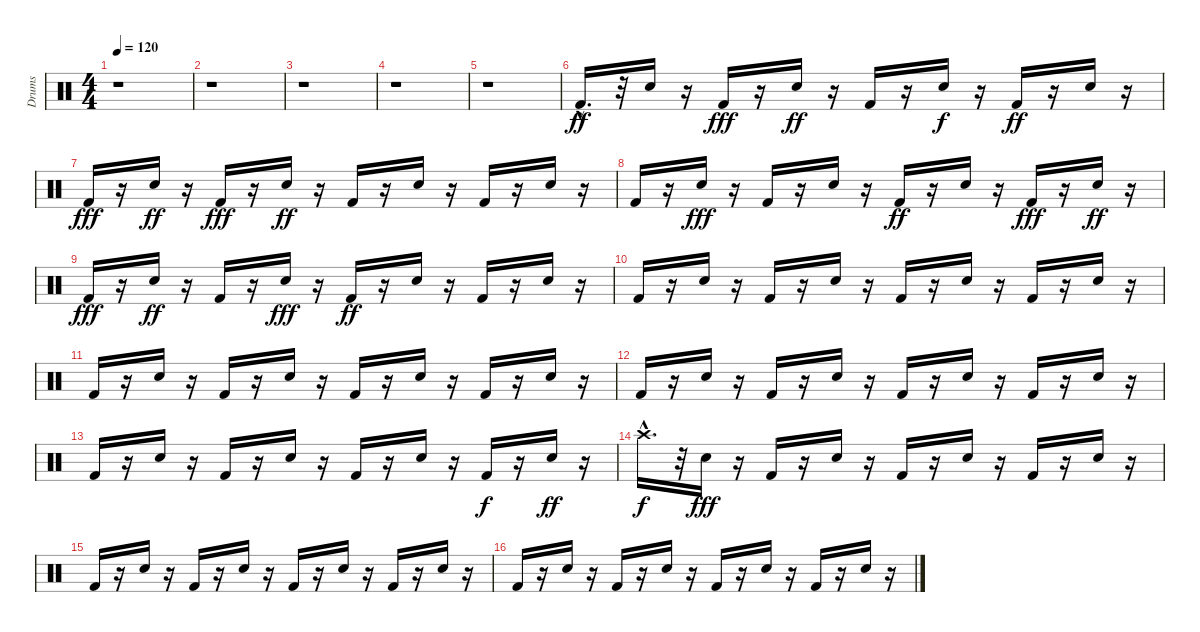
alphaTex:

\track ("Drums" "Drums") {instrument percussion}
\staff {score}
\articulation defaults
\ts (4 4)
\tempo 120
\clef neutral
\ks c
r.1{dy ff} |
r.1 |
r.1 |
r.1 |
r.1 |
"Kick (hit) 2"{hac}.16{d} r.32 "Snare (hit) 2".16 r.16 "Kick (hit) 2".16{dy fff} r.16 "Snare (hit) 2".16{dy ff} r.16 "Kick (hit) 2".16 r.16 "Snare (hit) 2".16{dy f} r.16 "Kick (hit) 2".16{dy ff} r.16 "Snare (hit) 2".16 r.16 |
"Kick (hit) 2".16{dy fff} r.16 "Snare (hit) 2".16{dy ff} r.16 "Kick (hit) 2".16{dy fff} r.16 "Snare (hit) 2".16{dy ff} r.16 "Kick (hit) 2".16 r.16 "Snare (hit) 2".16 r.16 "Kick (hit) 2".16 r.16 "Snare (hit) 2".16 r.16 |
"Kick (hit) 2".16 r.16 "Snare (hit) 2".16{dy fff} r.16 "Kick (hit) 2".16 r.16 "Snare (hit) 2".16 r.16 "Kick (hit) 2".16{dy ff} r.16 "Snare (hit) 2".16 r.16 "Kick (hit) 2".16{dy fff} r.16 "Snare (hit) 2".16{dy ff} r.16 |
"Kick (hit) 2".16{dy fff} r.16 "Snare (hit) 2".16{dy ff} r.16 "Kick (hit) 2".16 r.16 "Snare (hit) 2".16{dy fff} r.16 "Kick (hit) 2".16{dy ff} r.16 "Snare (hit) 2".16 r.16 "Kick (hit) 2".16 r.16 "Snare (hit) 2".16 r.16 |
"Kick (hit) 2".16 r.16 "Snare (hit) 2".16 r.16 "Kick (hit) 2".16 r.16 "Snare (hit) 2".16 r.16 "Kick (hit) 2".16 r.16 "Snare (hit) 2".16 r.16 "Kick (hit) 2".16 r.16 "Snare (hit) 2".16 r.16 |
"Kick (hit) 2".16 r.16 "Snare (hit) 2".16 r.16 "Kick (hit) 2".16 r.16 "Snare (hit) 2".16 r.16 "Kick (hit) 2".16 r.16 "Snare (hit) 2".16 r.16 "Kick (hit) 2".16 r.16 "Snare (hit) 2".16 r.16 |
"Kick (hit) 2".16 r.16 "Snare (hit) 2".16 r.16 "Kick (hit) 2".16 r.16 "Snare (hit) 2".16 r.16 "Kick (hit) 2".16 r.16 "Snare (hit) 2".16 r.16 "Kick (hit) 2".16 r.16 "Snare (hit) 2".16 r.16 |
"Kick (hit) 2".16 r.16 "Snare (hit) 2".16 r.16 "Kick (hit) 2".16 r.16 "Snare (hit) 2".16 r.16 "Kick (hit) 2".16 r.16 "Snare (hit) 2".16 r.16 "Kick (hit) 2".16{dy f} r.16 "Snare (hit) 2".16{dy ff} r.16 |
"Crash high (hit)"{hac}.16{d dy f} r.32 "Snare (hit) 2".16{dy fff} r.16 "Kick (hit) 2".16 r.16 "Snare (hit) 2".16 r.16 "Kick (hit) 2".16 r.16 "Snare (hit) 2".16 r.16 "Kick (hit) 2".16 r.16 "Snare (hit) 2".16 r.16 |
"Kick (hit) 2".16 r.16 "Snare (hit) 2".16 r.16 "Kick (hit) 2".16 r.16 "Snare (hit) 2".16 r.16 "Kick (hit) 2".16 r.16 "Snare (hit) 2".16 r.16 "Kick (hit) 2".16 r.16 "Snare (hit) 2".16 r.16 |
"Kick (hit) 2".16 r.16 "Snare (hit) 2".16 r.16 "Kick (hit) 2".16 r.16 "Snare (hit) 2".16 r.16 "Kick (hit) 2".16 r.16 "Snare (hit) 2".16 r.16 "Kick (hit) 2".16 r.16 "Snare (hit) 2".16 r.16
